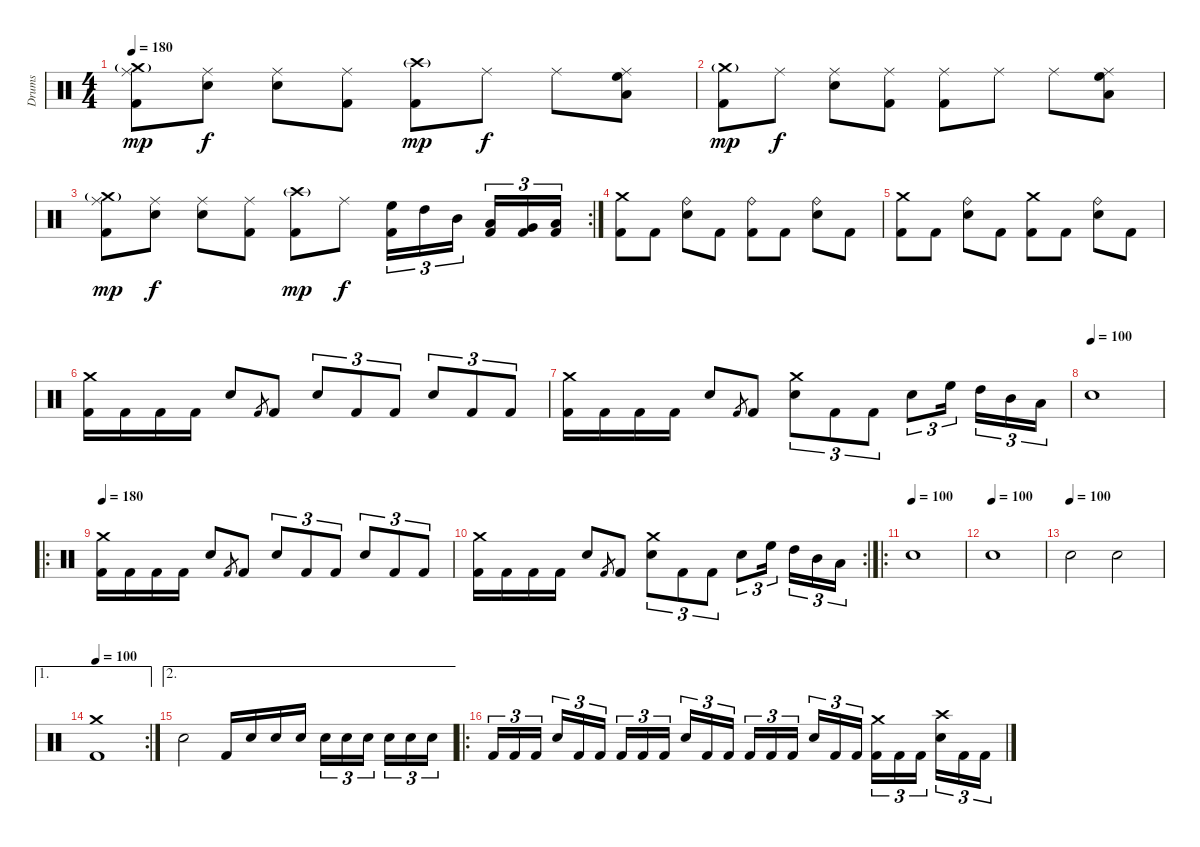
\track ("Drums" "Drums") {instrument percussion}
\staff {score}
\articulation defaults
\ts (4 4)
\tempo 180
\clef neutral
\ks c
("Ride (middle)" "Kick (hit) 2" "Crash medium (hit)"{g}).8{dy mp} ("Electric Snare (hit)" "Ride (middle)").8{dy f} ("Electric Snare (hit)" "Ride (middle)").8 ("Kick (hit) 2" "Ride (middle)").8 ("Kick (hit) 2" "Crash high (hit)"{g}).8{dy mp} "Ride (middle)".8{dy f} "Ride (middle)".8 ("Low Tom (hit)" "High Floor Tom (hit)" "Ride (middle)").8 |
("Kick (hit) 2" "Crash medium (hit)"{g}).8{dy mp} "Ride (middle)".8{dy f} ("Electric Snare (hit)" "Ride (middle)").8 ("Kick (hit) 2" "Ride (middle)").8 ("Ride (middle)" "Kick (hit) 2").8 "Ride (middle)".8 "Ride (middle)".8 ("Low Tom (hit)" "High Floor Tom (hit)" "Ride (middle)").8 |
\rc 2
("Ride (middle)" "Kick (hit) 2" "Crash medium (hit)"{g}).8{dy mp} ("Electric Snare (hit)" "Ride (middle)").8{dy f} ("Electric Snare (hit)" "Ride (middle)").8 ("Kick (hit) 2" "Ride (middle)").8 ("Kick (hit) 2" "Crash high (hit)"{g}).8{dy mp} "Ride (middle)".8{dy f} ("High Floor Tom (hit)" "Kick (hit) 2").16{tu (3 2)} "High Tom (hit)".16{tu (3 2)} "Mid Tom (hit)".16{tu (3 2)} ("Low Tom (hit)" "Kick (hit) 2").16{tu (3 2)} ("Very Low Tom (hit)" "Kick (hit) 2").16{tu (3 2)} ("Low Floor Tom (hit)" "Kick (hit) 2").16{tu (3 2)} |
("Crash medium (hit)" "Kick (hit) 2").8 "Kick (hit) 2".8 ("Ride (bell)" "Electric Snare (hit)").8 "Kick (hit) 2".8 ("Ride (bell)" "Kick (hit) 2").8 "Kick (hit) 2".8 ("Ride (bell)" "Electric Snare (hit)").8 "Kick (hit) 2".8 |
("Crash medium (hit)" "Kick (hit) 2").8 "Kick (hit) 2".8 ("Ride (bell)" "Electric Snare (hit)").8 "Kick (hit) 2".8 ("Crash medium (hit)" "Kick (hit) 2").8 "Kick (hit) 2".8 ("Ride (bell)" "Electric Snare (hit)").8 "Kick (hit) 2".8 |
("Crash medium (hit)" "Kick (hit) 2").16 "Kick (hit) 2".16 "Kick (hit) 2".16 "Kick (hit) 2".16 "Electric Snare (hit)".8 "Kick (hit) 2".8{gr} "Kick (hit) 2".8 "Electric Snare (hit)".8{tu (3 2)} "Kick (hit) 2".8{tu (3 2)} "Kick (hit) 2".8{tu (3 2)} "Electric Snare (hit)".8{tu (3 2)} "Kick (hit) 2".8{tu (3 2)} "Kick (hit) 2".8{tu (3 2)} |
("Crash medium (hit)" "Kick (hit) 2").16 "Kick (hit) 2".16 "Kick (hit) 2".16 "Kick (hit) 2".16 "Electric Snare (hit)".8 "Kick (hit) 2".8{gr} "Kick (hit) 2".8 ("Crash medium (hit)" "Electric Snare (hit)").8{tu (3 2)} "Kick (hit) 2".8{tu (3 2)} "Kick (hit) 2".8{tu (3 2)} "Electric Snare (hit)".8{tu (3 2)} "High Floor Tom (hit)".16{tu (3 2)} "High Tom (hit)".16{tu (3 2)} "Mid Tom (hit)".16{tu (3 2)} "Low Tom (hit)".16{tu (3 2)} |
\tempo (100)
"Electric Snare (hit)".1 |
\ro
\tempo 180
("Crash medium (hit)" "Kick (hit) 2").16 "Kick (hit) 2".16 "Kick (hit) 2".16 "Kick (hit) 2".16 "Electric Snare (hit)".8 "Kick (hit) 2".8{gr} "Kick (hit) 2".8 "Electric Snare (hit)".8{tu (3 2)} "Kick (hit) 2".8{tu (3 2)} "Kick (hit) 2".8{tu (3 2)} "Electric Snare (hit)".8{tu (3 2)} "Kick (hit) 2".8{tu (3 2)} "Kick (hit) 2".8{tu (3 2)} |
\rc 2
("Crash medium (hit)" "Kick (hit) 2").16 "Kick (hit) 2".16 "Kick (hit) 2".16 "Kick (hit) 2".16 "Electric Snare (hit)".8 "Kick (hit) 2".8{gr} "Kick (hit) 2".8 ("Crash medium (hit)" "Electric Snare (hit)").8{tu (3 2)} "Kick (hit) 2".8{tu (3 2)} "Kick (hit) 2".8{tu (3 2)} "Electric Snare (hit)".8{tu (3 2)} "High Floor Tom (hit)".16{tu (3 2)} "High Tom (hit)".16{tu (3 2)} "Mid Tom (hit)".16{tu (3 2)} "Low Tom (hit)".16{tu (3 2)} |
\ro
\tempo (100)
"Electric Snare (hit)".1 |
\tempo (100)
"Electric Snare (hit)".1 |
\tempo (100)
"Electric Snare (hit)".2 "Electric Snare (hit)".2 |
\ae 1
\rc 2
\tempo 100
("Kick (hit) 2" "Crash medium (hit)").1 |
\ae 2 "Electric Snare (hit)".2 "Kick (hit) 2".16 "Electric Snare (hit)".16 "Electric Snare (hit)".16 "Electric Snare (hit)".16 "Electric Snare (hit)".16{tu (3 2)} "Electric Snare (hit)".16{tu (3 2)} "Electric Snare (hit)".16{tu (3 2)} "Electric Snare (hit)".16{tu (3 2)} "Electric Snare (hit)".16{tu (3 2)} "Electric Snare (hit)".16{tu (3 2)}
|
\ro "Kick (hit) 2".16{tu (3 2)} "Kick (hit) 2".16{tu (3 2)} "Kick (hit) 2".16{tu (3 2)} "Electric Snare (hit)".16{tu (3 2)} "Kick (hit) 2".16{tu (3 2)} "Kick (hit) 2".16{tu (3 2)} "Kick (hit) 2".16{tu (3 2)} "Kick (hit) 2".16{tu (3 2)} "Kick (hit) 2".16{tu (3 2)} "Electric Snare (hit)".16{tu (3 2)} "Kick (hit) 2".16{tu (3 2)} "Kick (hit) 2".16{tu (3 2)} "Kick (hit) 2".16{tu (3 2)} "Kick (hit) 2".16{tu (3 2)} "Kick (hit) 2".16{tu (3 2)} "Electric Snare (hit)".16{tu (3 2)} "Kick (hit) 2".16{tu (3 2)} "Kick (hit) 2".16{tu (3 2)}
("Kick (hit) 2" "Crash medium (hit)").16{tu (3 2)} "Kick (hit) 2".16{tu (3 2)} "Kick (hit) 2".16{tu (3 2)} ("Electric Snare (hit)" "Crash high (hit)").16{tu (3 2)} "Kick (hit) 2".16{tu (3 2)} "Kick (hit) 2".16{tu (3 2)}
